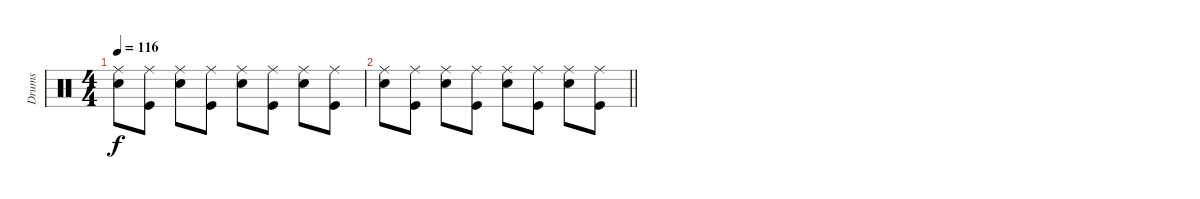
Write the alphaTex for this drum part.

\track ("Drums" "Drums") {instrument percussion}
\staff {score}
\articulation defaults
\ts (4 4)
\tempo 116
\clef neutral
\ks c
("Ride (middle)" "Snare (hit) 2").8{dy f} ("Ride (middle)" "Kick (hit)").8 ("Ride (middle)" "Snare (hit) 2").8 ("Ride (middle)" "Kick (hit)").8 ("Ride (middle)" "Snare (hit) 2").8 ("Ride (middle)" "Kick (hit)").8 ("Ride (middle)" "Snare (hit) 2").8 ("Ride (middle)" "Kick (hit)").8 |
\barLineRight lightlight
("Ride (middle)" "Snare (hit) 2").8 ("Ride (middle)" "Kick (hit)").8 ("Ride (middle)" "Snare (hit) 2").8 ("Ride (middle)" "Kick (hit)").8 ("Ride (middle)" "Snare (hit) 2").8 ("Ride (middle)" "Kick (hit)").8 ("Ride (middle)" "Snare (hit) 2").8 ("Ride (middle)" "Kick (hit)").8
